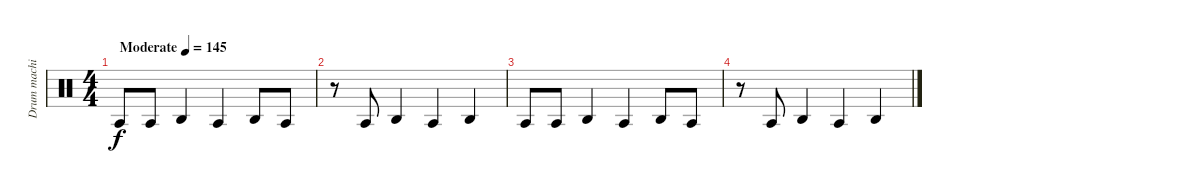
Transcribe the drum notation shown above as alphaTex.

\track ("Drum machine" "Drum machi") {instrument percussion}
\staff {score}
\articulation defaults
\ts (4 4)
\tempo (145 "Moderate")
\clef neutral
\ks c "Agogo tow (hit)".8{dy f} "Agogo tow (hit)".8 "Agogo high (hit)".4 "Agogo tow (hit)".4 "Agogo high (hit)".8 "Agogo tow (hit)".8
|
r.8 "Agogo tow (hit)".8 "Agogo high (hit)".4 "Agogo tow (hit)".4 "Agogo high (hit)".4 |
"Agogo tow (hit)".8 "Agogo tow (hit)".8 "Agogo high (hit)".4 "Agogo tow (hit)".4 "Agogo high (hit)".8 "Agogo tow (hit)".8 |
r.8 "Agogo tow (hit)".8 "Agogo high (hit)".4 "Agogo tow (hit)".4 "Agogo high (hit)".4
